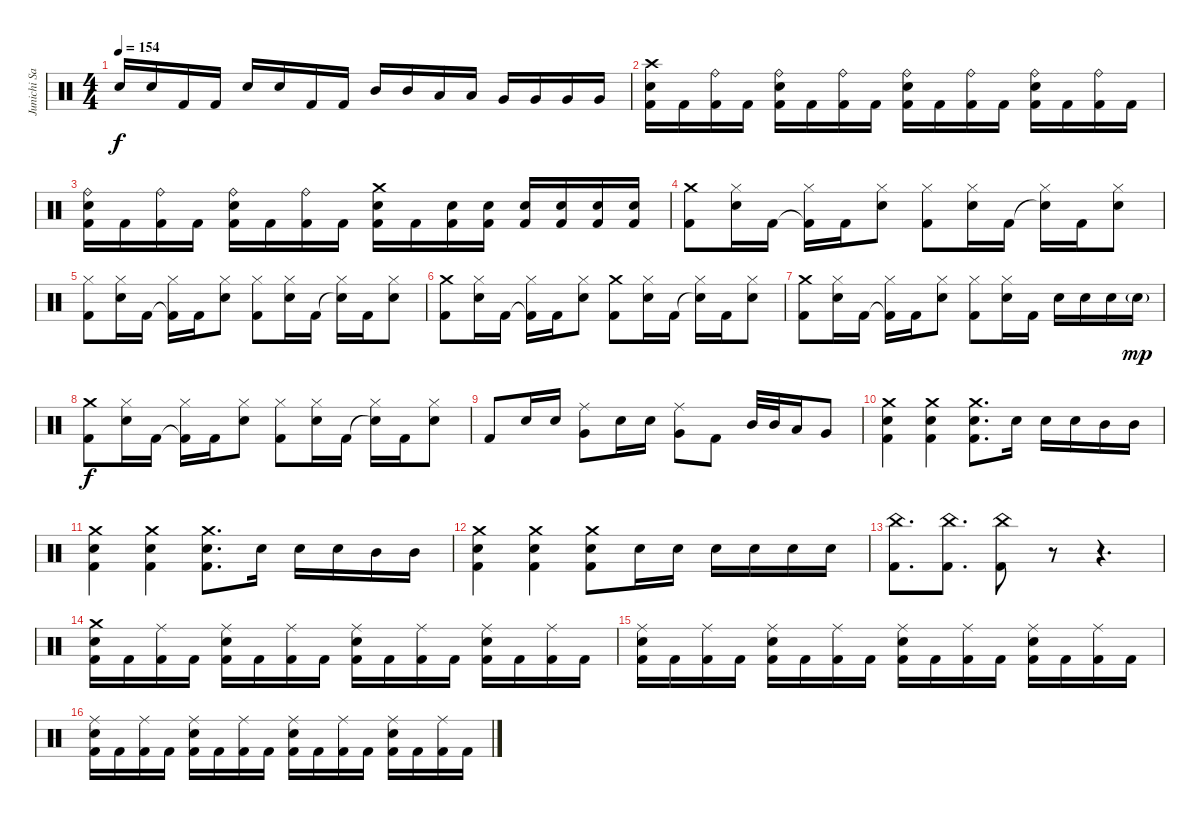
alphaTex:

\track ("Junichi Sato" "Junichi Sa") {instrument percussion}
\staff {score}
\articulation defaults
\ts (4 4)
\tempo 154
\clef neutral
\ks c "Electric Snare (hit)".16{dy f} "Electric Snare (hit)".16 "Kick (hit) 2".16 "Kick (hit) 2".16 "Electric Snare (hit)".16 "Electric Snare (hit)".16 "Kick (hit) 2".16 "Kick (hit) 2".16 "Mid Tom (hit)".16 "Mid Tom (hit)".16 "Low Tom (hit)".16 "Low Tom (hit)".16 "Very Low Tom (hit)".16 "Very Low Tom (hit)".16 "Very Low Tom (hit)".16 "Very Low Tom (hit)".16
|
("Kick (hit) 2" "Electric Snare (hit)" "Crash high (hit)").16 "Kick (hit) 2".16 ("Kick (hit) 2" "Ride (bell)").16 "Kick (hit) 2".16 ("Kick (hit) 2" "Electric Snare (hit)" "Ride (bell)").16 "Kick (hit) 2".16 ("Kick (hit) 2" "Ride (bell)").16 "Kick (hit) 2".16 ("Kick (hit) 2" "Electric Snare (hit)" "Ride (bell)").16 "Kick (hit) 2".16 ("Kick (hit) 2" "Ride (bell)").16 "Kick (hit) 2".16 ("Kick (hit) 2" "Electric Snare (hit)" "Ride (bell)").16 "Kick (hit) 2".16 ("Kick (hit) 2" "Ride (bell)").16 "Kick (hit) 2".16 |
("Kick (hit) 2" "Electric Snare (hit)" "Ride (bell)").16 "Kick (hit) 2".16 ("Kick (hit) 2" "Ride (bell)").16 "Kick (hit) 2".16 ("Kick (hit) 2" "Electric Snare (hit)" "Ride (bell)").16 "Kick (hit) 2".16 ("Kick (hit) 2" "Ride (bell)").16 "Kick (hit) 2".16 ("Kick (hit) 2" "Electric Snare (hit)" "Crash medium (hit)").16 "Kick (hit) 2".16 ("Kick (hit) 2" "Electric Snare (hit)").16 ("Kick (hit) 2" "Electric Snare (hit)").16 ("Kick (hit) 2" "Electric Snare (hit)").16 ("Kick (hit) 2" "Electric Snare (hit)").16 ("Kick (hit) 2" "Electric Snare (hit)").16 ("Kick (hit) 2" "Electric Snare (hit)").16 |
("Kick (hit) 2" "Crash medium (hit)").8 ("Electric Snare (hit)" "Hi-Hat (closed)").16 "Kick (hit) 2".16 ("Kick (hit) 2"{t} "Hi-Hat (closed)").16 "Kick (hit) 2".16 ("Electric Snare (hit)" "Hi-Hat (closed)").8 ("Kick (hit) 2" "Hi-Hat (closed)").8 ("Electric Snare (hit)" "Hi-Hat (closed)").16 "Kick (hit) 2".16 ("Snare (hit)"{t} "Hi-Hat (closed)").16 "Kick (hit) 2".16 ("Electric Snare (hit)" "Hi-Hat (closed)").8 |
("Kick (hit) 2" "Hi-Hat (closed)").8 ("Electric Snare (hit)" "Hi-Hat (closed)").16 "Kick (hit) 2".16 ("Kick (hit) 2"{t} "Hi-Hat (closed)").16 "Kick (hit) 2".16 ("Electric Snare (hit)" "Hi-Hat (closed)").8 ("Kick (hit) 2" "Hi-Hat (closed)").8 ("Electric Snare (hit)" "Hi-Hat (closed)").16 "Kick (hit) 2".16 ("Snare (hit)"{t} "Hi-Hat (closed)").16 "Kick (hit) 2".16 ("Electric Snare (hit)" "Hi-Hat (closed)").8 |
("Kick (hit) 2" "Crash medium (hit)").8 ("Electric Snare (hit)" "Hi-Hat (closed)").16 "Kick (hit) 2".16 ("Kick (hit) 2"{t} "Hi-Hat (closed)").16 "Kick (hit) 2".16 ("Electric Snare (hit)" "Hi-Hat (closed)").8 ("Kick (hit) 2" "Crash medium (hit)").8 ("Electric Snare (hit)" "Hi-Hat (closed)").16 "Kick (hit) 2".16 ("Snare (hit)"{t} "Hi-Hat (closed)").16 "Kick (hit) 2".16 ("Electric Snare (hit)" "Hi-Hat (closed)").8 |
("Kick (hit) 2" "Crash medium (hit)").8 ("Electric Snare (hit)" "Hi-Hat (closed)").16 "Kick (hit) 2".16 ("Kick (hit) 2"{t} "Hi-Hat (closed)").16 "Kick (hit) 2".16 ("Electric Snare (hit)" "Hi-Hat (closed)").8 ("Kick (hit) 2" "Hi-Hat (closed)").8 ("Electric Snare (hit)" "Hi-Hat (closed)").16 "Kick (hit) 2".16 "Electric Snare (hit)".16 "Electric Snare (hit)".16 "Electric Snare (hit)".16 "Electric Snare (hit)"{g}.16{dy mp} |
("Kick (hit) 2" "Crash medium (hit)").8{dy f} ("Electric Snare (hit)" "Hi-Hat (closed)").16 "Kick (hit) 2".16 ("Kick (hit) 2"{t} "Hi-Hat (closed)").16 "Kick (hit) 2".16 ("Electric Snare (hit)" "Hi-Hat (closed)").8 ("Kick (hit) 2" "Hi-Hat (closed)").8 ("Electric Snare (hit)" "Hi-Hat (closed)").16 "Kick (hit) 2".16 ("Snare (hit)"{t} "Hi-Hat (closed)").16 "Kick (hit) 2".16 ("Electric Snare (hit)" "Hi-Hat (closed)").8 |
"Kick (hit) 2".8 "Electric Snare (hit)".16 "Electric Snare (hit)".16 ("Very Low Tom (hit)" "Ride (middle)").8 "Electric Snare (hit)".16 "Electric Snare (hit)".16 ("Very Low Tom (hit)" "Ride (middle)").8 "Kick (hit) 2".8 "Mid Tom (hit)".32 "Mid Tom (hit)".32 "Low Tom (hit)".16 "Very Low Tom (hit)".8 |
("Kick (hit) 2" "Crash medium (hit)" "Electric Snare (hit)").4 ("Kick (hit) 2" "Crash medium (hit)" "Electric Snare (hit)").4 ("Kick (hit) 2" "Crash medium (hit)" "Electric Snare (hit)").8{d} "Electric Snare (hit)".16 "Electric Snare (hit)".16 "Electric Snare (hit)".16 "Mid Tom (hit)".16 "Mid Tom (hit)".16 |
("Kick (hit) 2" "Crash medium (hit)" "Electric Snare (hit)").4 ("Kick (hit) 2" "Crash medium (hit)" "Electric Snare (hit)").4 ("Kick (hit) 2" "Crash medium (hit)" "Electric Snare (hit)").8{d} "Electric Snare (hit)".16 "Electric Snare (hit)".16 "Electric Snare (hit)".16 "Mid Tom (hit)".16 "Mid Tom (hit)".16 |
("Kick (hit) 2" "Crash medium (hit)" "Electric Snare (hit)").4 ("Kick (hit) 2" "Crash medium (hit)" "Electric Snare (hit)").4 ("Kick (hit) 2" "Crash medium (hit)" "Electric Snare (hit)").8 "Electric Snare (hit)".16 "Electric Snare (hit)".16 "Electric Snare (hit)".16 "Electric Snare (hit)".16 "Electric Snare (hit)".16 "Electric Snare (hit)".16 |
("China (hit)" "Kick (hit) 2").8{d} ("China (hit)" "Kick (hit) 2").8{d} ("China (hit)" "Kick (hit) 2").8 r.8 r.4{d} |
("Kick (hit) 2" "Crash medium (hit)" "Electric Snare (hit)").16 "Kick (hit) 2".16 ("Kick (hit) 2" "Ride (middle)").16 "Kick (hit) 2".16 ("Kick (hit) 2" "Ride (middle)" "Electric Snare (hit)").16 "Kick (hit) 2".16 ("Kick (hit) 2" "Ride (middle)").16 "Kick (hit) 2".16 ("Kick (hit) 2" "Ride (middle)" "Electric Snare (hit)").16 "Kick (hit) 2".16 ("Kick (hit) 2" "Ride (middle)").16 "Kick (hit) 2".16 ("Kick (hit) 2" "Ride (middle)" "Electric Snare (hit)").16 "Kick (hit) 2".16 ("Kick (hit) 2" "Ride (middle)").16 "Kick (hit) 2".16 |
("Kick (hit) 2" "Ride (middle)" "Electric Snare (hit)").16 "Kick (hit) 2".16 ("Kick (hit) 2" "Ride (middle)").16 "Kick (hit) 2".16 ("Kick (hit) 2" "Ride (middle)" "Electric Snare (hit)").16 "Kick (hit) 2".16 ("Kick (hit) 2" "Ride (middle)").16 "Kick (hit) 2".16 ("Kick (hit) 2" "Ride (middle)" "Electric Snare (hit)").16 "Kick (hit) 2".16 ("Kick (hit) 2" "Ride (middle)").16 "Kick (hit) 2".16 ("Kick (hit) 2" "Ride (middle)" "Electric Snare (hit)").16 "Kick (hit) 2".16 ("Kick (hit) 2" "Ride (middle)").16 "Kick (hit) 2".16 |
("Kick (hit) 2" "Ride (middle)" "Electric Snare (hit)").16 "Kick (hit) 2".16 ("Kick (hit) 2" "Ride (middle)").16 "Kick (hit) 2".16 ("Kick (hit) 2" "Ride (middle)" "Electric Snare (hit)").16 "Kick (hit) 2".16 ("Kick (hit) 2" "Ride (middle)").16 "Kick (hit) 2".16 ("Kick (hit) 2" "Ride (middle)" "Electric Snare (hit)").16 "Kick (hit) 2".16 ("Kick (hit) 2" "Ride (middle)").16 "Kick (hit) 2".16 ("Kick (hit) 2" "Ride (middle)" "Electric Snare (hit)").16 "Kick (hit) 2".16 ("Kick (hit) 2" "Ride (middle)").16 "Kick (hit) 2".16
